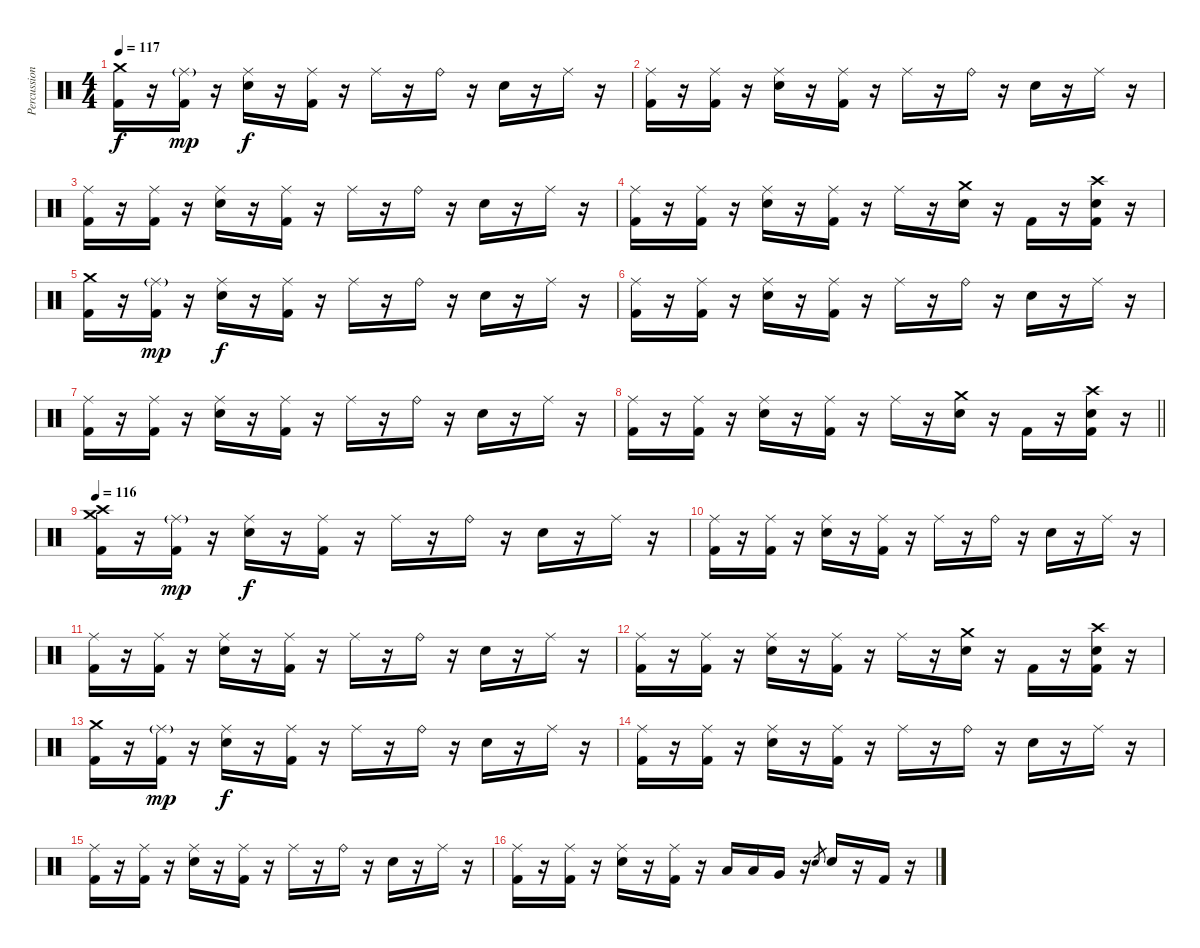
\track ("Percussion" "Percussion") {instrument percussion}
\staff {score}
\articulation defaults
\ts (4 4)
\section ("" "")
\tempo 117
\clef neutral
\ks c
("Crash medium (hit)" "Kick (hit) 2").16{dy f} r.16 ("Ride (middle)"{g} "Kick (hit) 2").16{dy mp} r.16 ("Ride (middle)" "Electric Snare (hit)").16{dy f} r.16 ("Ride (middle)" "Kick (hit) 2").16 r.16 "Ride (middle)".16 r.16 "Ride (bell)".16 r.16 "Electric Snare (hit)".16 r.16 "Ride (middle)".16 r.16 |
("Ride (middle)" "Kick (hit) 2").16 r.16 ("Ride (middle)" "Kick (hit) 2").16 r.16 ("Ride (middle)" "Electric Snare (hit)").16 r.16 ("Ride (middle)" "Kick (hit) 2").16 r.16 "Ride (middle)".16 r.16 "Ride (bell)".16 r.16 "Electric Snare (hit)".16 r.16 "Ride (middle)".16 r.16 |
("Ride (middle)" "Kick (hit) 2").16 r.16 ("Ride (middle)" "Kick (hit) 2").16 r.16 ("Ride (middle)" "Electric Snare (hit)").16 r.16 ("Ride (middle)" "Kick (hit) 2").16 r.16 "Ride (middle)".16 r.16 "Ride (bell)".16 r.16 "Electric Snare (hit)".16 r.16 "Ride (middle)".16 r.16 |
("Ride (middle)" "Kick (hit) 2").16 r.16 ("Ride (middle)" "Kick (hit) 2").16 r.16 ("Ride (middle)" "Electric Snare (hit)").16 r.16 ("Ride (middle)" "Kick (hit) 2").16 r.16 "Ride (middle)".16 r.16 ("Crash medium (hit)" "Electric Snare (hit)").16 r.16 "Kick (hit) 2".16 r.16 ("Crash high (hit)" "Electric Snare (hit)" "Kick (hit) 2").16 r.16 |
("Crash medium (hit)" "Kick (hit) 2").16 r.16 ("Ride (middle)"{g} "Kick (hit) 2").16{dy mp} r.16 ("Ride (middle)" "Electric Snare (hit)").16{dy f} r.16 ("Ride (middle)" "Kick (hit) 2").16 r.16 "Ride (middle)".16 r.16 "Ride (bell)".16 r.16 "Electric Snare (hit)".16 r.16 "Ride (middle)".16 r.16 |
("Ride (middle)" "Kick (hit) 2").16 r.16 ("Ride (middle)" "Kick (hit) 2").16 r.16 ("Ride (middle)" "Electric Snare (hit)").16 r.16 ("Ride (middle)" "Kick (hit) 2").16 r.16 "Ride (middle)".16 r.16 "Ride (bell)".16 r.16 "Electric Snare (hit)".16 r.16 "Ride (middle)".16 r.16 |
("Ride (middle)" "Kick (hit) 2").16 r.16 ("Ride (middle)" "Kick (hit) 2").16 r.16 ("Ride (middle)" "Electric Snare (hit)").16 r.16 ("Ride (middle)" "Kick (hit) 2").16 r.16 "Ride (middle)".16 r.16 "Ride (bell)".16 r.16 "Electric Snare (hit)".16 r.16 "Ride (middle)".16 r.16 |
\barLineRight lightlight
("Ride (middle)" "Kick (hit) 2").16 r.16 ("Ride (middle)" "Kick (hit) 2").16 r.16 ("Ride (middle)" "Electric Snare (hit)").16 r.16 ("Ride (middle)" "Kick (hit) 2").16 r.16 "Ride (middle)".16 r.16 ("Crash medium (hit)" "Electric Snare (hit)").16 r.16 "Kick (hit) 2".16 r.16 ("Crash high (hit)" "Electric Snare (hit)" "Kick (hit) 2").16 r.16 |
\section ("" "")
\tempo 116
("Crash medium (hit)" "Crash high (hit)" "Kick (hit) 2").16 r.16 ("Ride (middle)"{g} "Kick (hit) 2").16{dy mp} r.16 ("Ride (middle)" "Electric Snare (hit)").16{dy f} r.16 ("Ride (middle)" "Kick (hit) 2").16 r.16 "Ride (middle)".16 r.16 "Ride (bell)".16 r.16 "Electric Snare (hit)".16 r.16 "Ride (middle)".16 r.16 |
("Ride (middle)" "Kick (hit) 2").16 r.16 ("Ride (middle)" "Kick (hit) 2").16 r.16 ("Ride (middle)" "Electric Snare (hit)").16 r.16 ("Ride (middle)" "Kick (hit) 2").16 r.16 "Ride (middle)".16 r.16 "Ride (bell)".16 r.16 "Electric Snare (hit)".16 r.16 "Ride (middle)".16 r.16 |
("Ride (middle)" "Kick (hit) 2").16 r.16 ("Ride (middle)" "Kick (hit) 2").16 r.16 ("Ride (middle)" "Electric Snare (hit)").16 r.16 ("Ride (middle)" "Kick (hit) 2").16 r.16 "Ride (middle)".16 r.16 "Ride (bell)".16 r.16 "Electric Snare (hit)".16 r.16 "Ride (middle)".16 r.16 |
("Ride (middle)" "Kick (hit) 2").16 r.16 ("Ride (middle)" "Kick (hit) 2").16 r.16 ("Ride (middle)" "Electric Snare (hit)").16 r.16 ("Ride (middle)" "Kick (hit) 2").16 r.16 "Ride (middle)".16 r.16 ("Crash medium (hit)" "Electric Snare (hit)").16 r.16 "Kick (hit) 2".16 r.16 ("Crash high (hit)" "Electric Snare (hit)" "Kick (hit) 2").16 r.16 |
("Crash medium (hit)" "Kick (hit) 2").16 r.16 ("Ride (middle)"{g} "Kick (hit) 2").16{dy mp} r.16 ("Ride (middle)" "Electric Snare (hit)").16{dy f} r.16 ("Ride (middle)" "Kick (hit) 2").16 r.16 "Ride (middle)".16 r.16 "Ride (bell)".16 r.16 "Electric Snare (hit)".16 r.16 "Ride (middle)".16 r.16 |
("Ride (middle)" "Kick (hit) 2").16 r.16 ("Ride (middle)" "Kick (hit) 2").16 r.16 ("Ride (middle)" "Electric Snare (hit)").16 r.16 ("Ride (middle)" "Kick (hit) 2").16 r.16 "Ride (middle)".16 r.16 "Ride (bell)".16 r.16 "Electric Snare (hit)".16 r.16 "Ride (middle)".16 r.16 |
("Ride (middle)" "Kick (hit) 2").16 r.16 ("Ride (middle)" "Kick (hit) 2").16 r.16 ("Ride (middle)" "Electric Snare (hit)").16 r.16 ("Ride (middle)" "Kick (hit) 2").16 r.16 "Ride (middle)".16 r.16 "Ride (bell)".16 r.16 "Electric Snare (hit)".16 r.16 "Ride (middle)".16 r.16 |
("Ride (middle)" "Kick (hit) 2").16 r.16 ("Ride (middle)" "Kick (hit) 2").16 r.16 ("Ride (middle)" "Electric Snare (hit)").16 r.16 ("Ride (middle)" "Kick (hit) 2").16 r.16 "Low Tom (hit)".16 "Low Tom (hit)".16 "Very Low Tom (hit)".16 r.16 "Electric Snare (hit)".8{gr} "Electric Snare (hit)".16 r.16 "Kick (hit) 2".16 r.16
